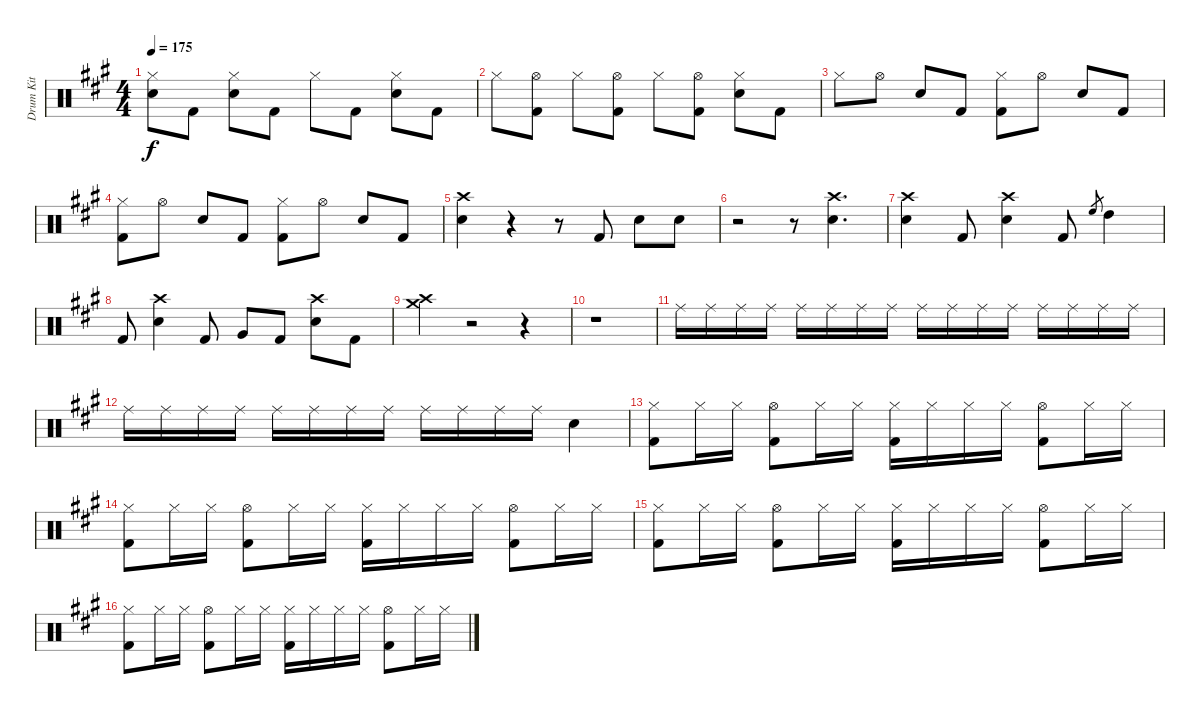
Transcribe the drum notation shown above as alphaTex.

\track ("Drum Kit" "Drum Kit") {instrument percussion}
\staff {score}
\articulation defaults
\ts (4 4)
\tempo 175
\clef neutral
\ks a
("Hi-Hat (closed)" "Snare (hit) 2").8{dy f} "Kick (hit) 2".8 ("Hi-Hat (closed)" "Snare (hit) 2").8 "Kick (hit) 2".8 "Hi-Hat (closed)".8 "Kick (hit) 2".8 ("Hi-Hat (closed)" "Snare (hit) 2").8 "Kick (hit) 2".8 |
"Hi-Hat (closed)".8 ("Hi-Hat (open)" "Kick (hit) 2").8 "Hi-Hat (closed)".8 ("Hi-Hat (open)" "Kick (hit) 2").8 "Hi-Hat (closed)".8 ("Hi-Hat (open)" "Kick (hit) 2").8 ("Hi-Hat (closed)" "Snare (hit) 2").8 "Kick (hit) 2".8 |
"Hi-Hat (closed)".8 "Hi-Hat (open)".8 "Snare (hit) 2".8 "Kick (hit) 2".8 ("Hi-Hat (closed)" "Kick (hit) 2").8 "Hi-Hat (open)".8 "Snare (hit) 2".8 "Kick (hit) 2".8 |
("Hi-Hat (closed)" "Kick (hit) 2").8 "Hi-Hat (open)".8 "Snare (hit) 2".8 "Kick (hit) 2".8 ("Hi-Hat (closed)" "Kick (hit) 2").8 "Hi-Hat (open)".8 "Snare (hit) 2".8 "Kick (hit) 2".8 |
("Crash high (hit)" "Snare (hit) 2").4 r.4 r.8 "Kick (hit) 2".8 "Snare (hit) 2".8 "Snare (hit) 2".8 |
r.2 r.8 ("Crash high (hit)" "Snare (hit) 2").4{d} |
("Crash high (hit)" "Snare (hit) 2").4 "Kick (hit) 2".8 ("Crash high (hit)" "Snare (hit) 2").4 "Kick (hit) 2".8 "High Floor Tom (hit)".8{gr} "High Tom (hit)".4 |
"Kick (hit) 2".8 ("Crash high (hit)" "Snare (hit) 2").4 "Kick (hit) 2".8 "Very Low Tom (hit)".8 "Kick (hit) 2".8 ("Crash high (hit)" "Snare (hit) 2").8 "Kick (hit) 2".8 |
("Crash high (hit)" "Crash medium (hit)").4 r.2 r.4 |
r.1{volume 8} |
"Ride (middle)".16{volume 16} "Ride (middle)".16 "Ride (middle)".16 "Ride (middle)".16 "Ride (middle)".16 "Ride (middle)".16 "Ride (middle)".16 "Ride (middle)".16 "Ride (middle)".16 "Ride (middle)".16 "Ride (middle)".16 "Ride (middle)".16 "Ride (middle)".16 "Ride (middle)".16 "Ride (middle)".16 "Ride (middle)".16 |
"Ride (middle)".16{volume 7} "Ride (middle)".16 "Ride (middle)".16 "Ride (middle)".16 "Ride (middle)".16 "Ride (middle)".16 "Ride (middle)".16 "Ride (middle)".16 "Ride (middle)".16 "Ride (middle)".16 "Ride (middle)".16 "Ride (middle)".16 "Snare (hit) 2".4{volume 13} |
("Hi-Hat (closed)" "Kick (hit) 2").8 "Hi-Hat (closed)".16 "Hi-Hat (closed)".16 ("Hi-Hat (open)" "Kick (hit) 2").8 "Hi-Hat (closed)".16 "Hi-Hat (closed)".16 ("Hi-Hat (closed)" "Kick (hit) 2").16 "Hi-Hat (closed)".16 "Hi-Hat (closed)".16 "Hi-Hat (closed)".16 ("Hi-Hat (open)" "Kick (hit) 2").8 "Hi-Hat (closed)".16 "Hi-Hat (closed)".16 |
("Hi-Hat (closed)" "Kick (hit) 2").8 "Hi-Hat (closed)".16 "Hi-Hat (closed)".16 ("Hi-Hat (open)" "Kick (hit) 2").8 "Hi-Hat (closed)".16 "Hi-Hat (closed)".16 ("Hi-Hat (closed)" "Kick (hit) 2").16 "Hi-Hat (closed)".16 "Hi-Hat (closed)".16 "Hi-Hat (closed)".16 ("Hi-Hat (open)" "Kick (hit) 2").8 "Hi-Hat (closed)".16 "Hi-Hat (closed)".16 |
("Hi-Hat (closed)" "Kick (hit) 2").8 "Hi-Hat (closed)".16 "Hi-Hat (closed)".16 ("Hi-Hat (open)" "Kick (hit) 2").8 "Hi-Hat (closed)".16 "Hi-Hat (closed)".16 ("Hi-Hat (closed)" "Kick (hit) 2").16 "Hi-Hat (closed)".16 "Hi-Hat (closed)".16 "Hi-Hat (closed)".16 ("Hi-Hat (open)" "Kick (hit) 2").8 "Hi-Hat (closed)".16 "Hi-Hat (closed)".16 |
("Hi-Hat (closed)" "Kick (hit) 2").8 "Hi-Hat (closed)".16 "Hi-Hat (closed)".16 ("Hi-Hat (open)" "Kick (hit) 2").8 "Hi-Hat (closed)".16 "Hi-Hat (closed)".16 ("Hi-Hat (closed)" "Kick (hit) 2").16 "Hi-Hat (closed)".16 "Hi-Hat (closed)".16 "Hi-Hat (closed)".16 ("Hi-Hat (open)" "Kick (hit) 2").8 "Hi-Hat (closed)".16 "Hi-Hat (closed)".16
